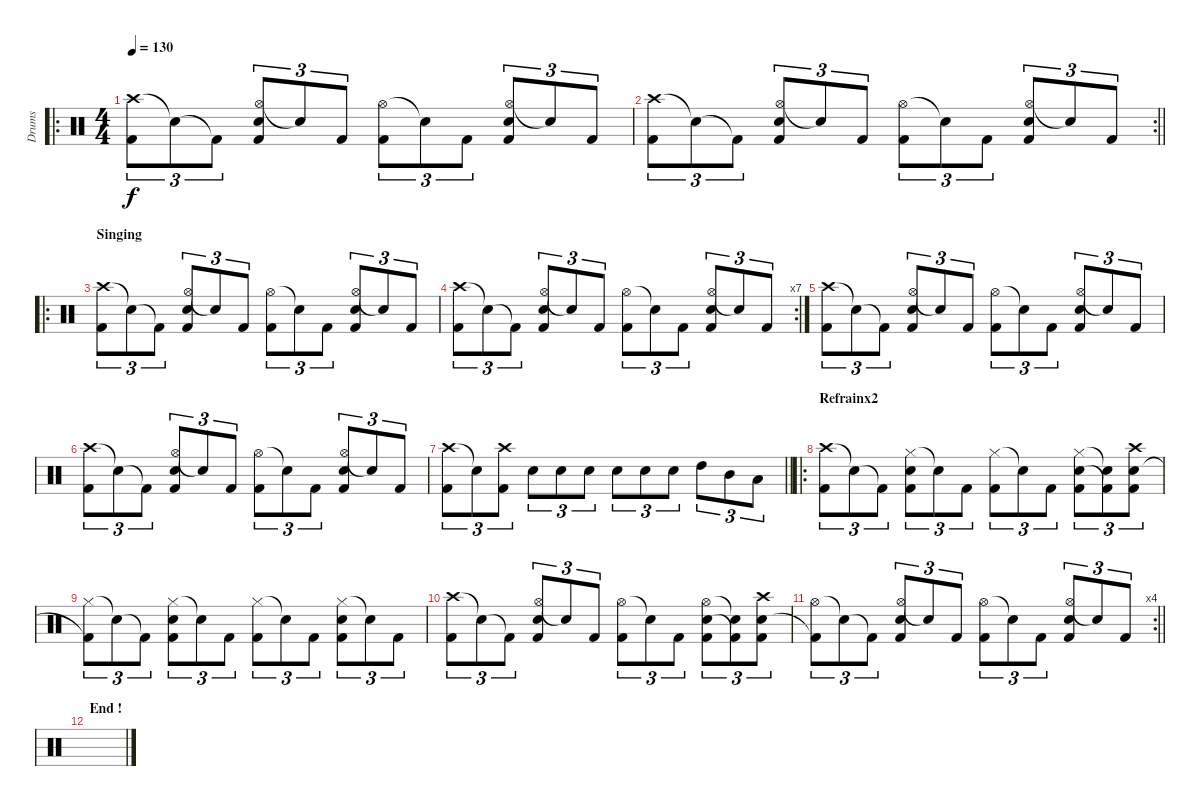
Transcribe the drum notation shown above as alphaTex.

\track ("Drums" "Drums") {instrument percussion}
\staff {score}
\articulation defaults
\ro
\ts (4 4)
\tempo 130
\clef neutral
\ks c
("Crash high (hit)" "Kick (hit) 2").8{tu (3 2) dy f} "Snare (hit)"{t}.8{tu (3 2)} "Kick (hit) 2"{t}.8{tu (3 2)} ("Hi-Hat (open)" "Electric Snare (hit)" "Kick (hit) 2").8{tu (3 2)} "Snare (hit)"{t}.8{tu (3 2)} "Kick (hit) 2".8{tu (3 2)} ("Hi-Hat (open)" "Kick (hit) 2").8{tu (3 2)} "Snare (hit)"{t}.8{tu (3 2)} "Kick (hit) 2".8{tu (3 2)} ("Hi-Hat (open)" "Electric Snare (hit)" "Kick (hit) 2").8{tu (3 2)} "Snare (hit)"{t}.8{tu (3 2)} "Kick (hit) 2".8{tu (3 2)} |
\rc 2
\barLineRight lightlight
("Crash high (hit)" "Kick (hit) 2").8{tu (3 2)} "Snare (hit)"{t}.8{tu (3 2)} "Kick (hit) 2"{t}.8{tu (3 2)} ("Hi-Hat (open)" "Electric Snare (hit)" "Kick (hit) 2").8{tu (3 2)} "Snare (hit)"{t}.8{tu (3 2)} "Kick (hit) 2".8{tu (3 2)} ("Hi-Hat (open)" "Kick (hit) 2").8{tu (3 2)} "Snare (hit)"{t}.8{tu (3 2)} "Kick (hit) 2".8{tu (3 2)} ("Hi-Hat (open)" "Electric Snare (hit)" "Kick (hit) 2").8{tu (3 2)} "Snare (hit)"{t}.8{tu (3 2)} "Kick (hit) 2".8{tu (3 2)} |
\ro
\section ("" "Singing")
("Crash high (hit)" "Kick (hit) 2").8{tu (3 2)} "Snare (hit)"{t}.8{tu (3 2)} "Kick (hit) 2"{t}.8{tu (3 2)} ("Hi-Hat (open)" "Electric Snare (hit)" "Kick (hit) 2").8{tu (3 2)} "Snare (hit)"{t}.8{tu (3 2)} "Kick (hit) 2".8{tu (3 2)} ("Hi-Hat (open)" "Kick (hit) 2").8{tu (3 2)} "Snare (hit)"{t}.8{tu (3 2)} "Kick (hit) 2".8{tu (3 2)} ("Hi-Hat (open)" "Electric Snare (hit)" "Kick (hit) 2").8{tu (3 2)} "Snare (hit)"{t}.8{tu (3 2)} "Kick (hit) 2".8{tu (3 2)} |
\rc 7
("Crash high (hit)" "Kick (hit) 2").8{tu (3 2)} "Snare (hit)"{t}.8{tu (3 2)} "Kick (hit) 2"{t}.8{tu (3 2)} ("Hi-Hat (open)" "Electric Snare (hit)" "Kick (hit) 2").8{tu (3 2)} "Snare (hit)"{t}.8{tu (3 2)} "Kick (hit) 2".8{tu (3 2)} ("Hi-Hat (open)" "Kick (hit) 2").8{tu (3 2)} "Snare (hit)"{t}.8{tu (3 2)} "Kick (hit) 2".8{tu (3 2)} ("Hi-Hat (open)" "Electric Snare (hit)" "Kick (hit) 2").8{tu (3 2)} "Snare (hit)"{t}.8{tu (3 2)} "Kick (hit) 2".8{tu (3 2)} |
("Crash high (hit)" "Kick (hit) 2").8{tu (3 2)} "Snare (hit)"{t}.8{tu (3 2)} "Kick (hit) 2"{t}.8{tu (3 2)} ("Hi-Hat (open)" "Electric Snare (hit)" "Kick (hit) 2").8{tu (3 2)} "Snare (hit)"{t}.8{tu (3 2)} "Kick (hit) 2".8{tu (3 2)} ("Hi-Hat (open)" "Kick (hit) 2").8{tu (3 2)} "Snare (hit)"{t}.8{tu (3 2)} "Kick (hit) 2".8{tu (3 2)} ("Hi-Hat (open)" "Electric Snare (hit)" "Kick (hit) 2").8{tu (3 2)} "Snare (hit)"{t}.8{tu (3 2)} "Kick (hit) 2".8{tu (3 2)} |
("Crash high (hit)" "Kick (hit) 2").8{tu (3 2)} "Snare (hit)"{t}.8{tu (3 2)} "Kick (hit) 2"{t}.8{tu (3 2)} ("Hi-Hat (open)" "Electric Snare (hit)" "Kick (hit) 2").8{tu (3 2)} "Snare (hit)"{t}.8{tu (3 2)} "Kick (hit) 2".8{tu (3 2)} ("Hi-Hat (open)" "Kick (hit) 2").8{tu (3 2)} "Snare (hit)"{t}.8{tu (3 2)} "Kick (hit) 2".8{tu (3 2)} ("Hi-Hat (open)" "Electric Snare (hit)" "Kick (hit) 2").8{tu (3 2)} "Snare (hit)"{t}.8{tu (3 2)} "Kick (hit) 2".8{tu (3 2)} |
\barLineRight lightlight
("Crash high (hit)" "Kick (hit) 2").8{tu (3 2)} "Snare (hit)"{t}.8{tu (3 2)} ("Crash high (hit)" "Kick (hit) 2").8{tu (3 2)} "Electric Snare (hit)".8{tu (3 2)} "Electric Snare (hit)".8{tu (3 2)} "Electric Snare (hit)".8{tu (3 2)} "Electric Snare (hit)".8{tu (3 2)} "Electric Snare (hit)".8{tu (3 2)} "Electric Snare (hit)".8{tu (3 2)} "High Tom (hit)".8{tu (3 2)} "Mid Tom (hit)".8{tu (3 2)} "Low Tom (hit)".8{tu (3 2)} |
\ro
\section ("" "Refrainx2")
("Crash high (hit)" "Kick (hit) 2").8{tu (3 2)} "Snare (hit)"{t}.8{tu (3 2)} "Kick (hit) 2"{t}.8{tu (3 2)} ("Hi-Hat (closed)" "Electric Snare (hit)" "Kick (hit) 2").8{tu (3 2)} "Snare (hit)"{t}.8{tu (3 2)} "Kick (hit) 2".8{tu (3 2)} ("Hi-Hat (closed)" "Kick (hit) 2").8{tu (3 2)} "Snare (hit)"{t}.8{tu (3 2)} "Kick (hit) 2".8{tu (3 2)} ("Hi-Hat (closed)" "Electric Snare (hit)" "Kick (hit) 2").8{tu (3 2)} ("Electric Snare (hit)"{t} "Kick (hit) 2"{t}).8{tu (3 2)} ("Crash high (hit)" "Electric Snare (hit)" "Kick (hit) 2").8{tu (3 2)} |
("Hi-Hat (closed)" "Kick (hit) 2"{t}).8{tu (3 2)} "Snare (hit)"{t}.8{tu (3 2)} "Kick (hit) 2"{t}.8{tu (3 2)} ("Hi-Hat (closed)" "Electric Snare (hit)" "Kick (hit) 2").8{tu (3 2)} "Snare (hit)"{t}.8{tu (3 2)} "Kick (hit) 2".8{tu (3 2)} ("Hi-Hat (closed)" "Kick (hit) 2").8{tu (3 2)} "Snare (hit)"{t}.8{tu (3 2)} "Kick (hit) 2".8{tu (3 2)} ("Hi-Hat (closed)" "Electric Snare (hit)" "Kick (hit) 2").8{tu (3 2)} "Snare (hit)"{t}.8{tu (3 2)} "Kick (hit) 2".8{tu (3 2)} |
("Crash high (hit)" "Kick (hit) 2").8{tu (3 2)} "Snare (hit)"{t}.8{tu (3 2)} "Kick (hit) 2"{t}.8{tu (3 2)} ("Hi-Hat (open)" "Electric Snare (hit)" "Kick (hit) 2").8{tu (3 2)} "Snare (hit)"{t}.8{tu (3 2)} "Kick (hit) 2".8{tu (3 2)} ("Hi-Hat (open)" "Kick (hit) 2").8{tu (3 2)} "Snare (hit)"{t}.8{tu (3 2)} "Kick (hit) 2".8{tu (3 2)} ("Hi-Hat (open)" "Electric Snare (hit)" "Kick (hit) 2").8{tu (3 2)} ("Electric Snare (hit)"{t} "Kick (hit) 2"{t}).8{tu (3 2)} ("Crash high (hit)" "Electric Snare (hit)" "Kick (hit) 2").8{tu (3 2)} |
\rc 4
\barLineRight lightlight
("Hi-Hat (open)" "Kick (hit) 2"{t}).8{tu (3 2)} "Snare (hit)"{t}.8{tu (3 2)} "Kick (hit) 2"{t}.8{tu (3 2)} ("Hi-Hat (open)" "Electric Snare (hit)" "Kick (hit) 2").8{tu (3 2)} "Snare (hit)"{t}.8{tu (3 2)} "Kick (hit) 2".8{tu (3 2)} ("Hi-Hat (open)" "Kick (hit) 2").8{tu (3 2)} "Snare (hit)"{t}.8{tu (3 2)} "Kick (hit) 2".8{tu (3 2)} ("Hi-Hat (open)" "Electric Snare (hit)" "Kick (hit) 2").8{tu (3 2)} "Snare (hit)"{t}.8{tu (3 2)} "Kick (hit) 2".8{tu (3 2)} |
\section ("" "End !")
